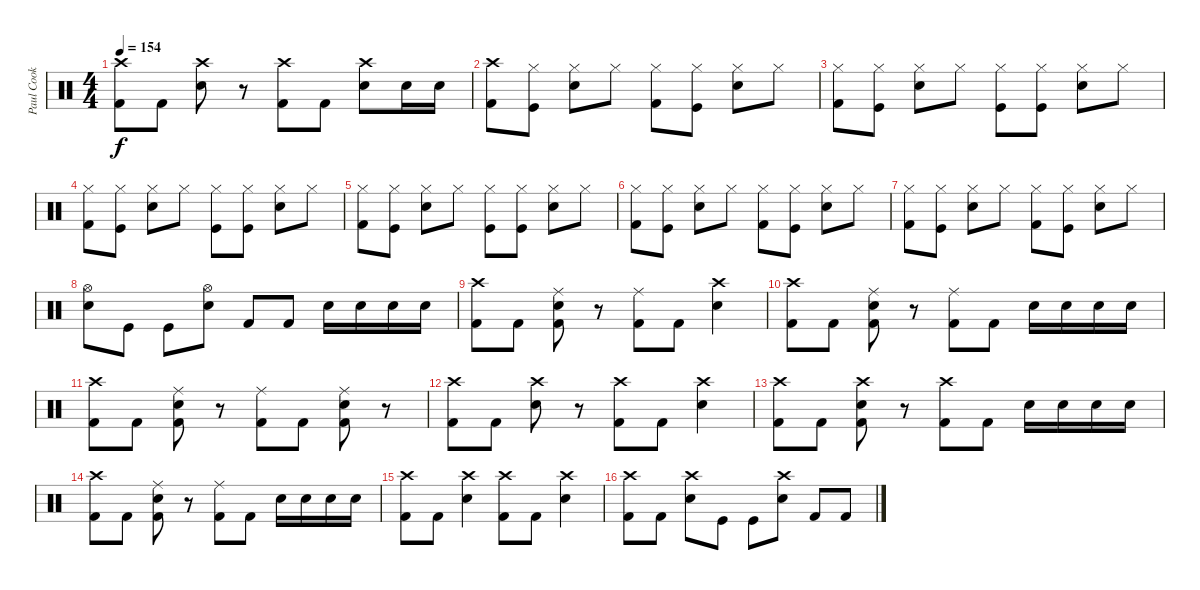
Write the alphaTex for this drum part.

\track ("Paul Cook" "Paul Cook") {instrument percussion}
\staff {score}
\articulation defaults
\ts (4 4)
\tempo 154
\clef neutral
\ks c
("Crash high (hit)" "Kick (hit) 2").8{dy f} "Kick (hit) 2".8 ("Crash high (hit)" "Electric Snare (hit)").8 r.8 ("Crash high (hit)" "Kick (hit) 2").8 "Kick (hit) 2".8 ("Crash high (hit)" "Electric Snare (hit)").8 "Snare (hit) 2".16 "Snare (hit) 2".16 |
("Crash high (hit)" "Kick (hit) 2").8 ("Kick (hit)" "Hi-Hat (closed)").8 ("Hi-Hat (closed)" "Snare (hit) 2").8 "Hi-Hat (closed)".8 ("Hi-Hat (closed)" "Kick (hit) 2").8 ("Kick (hit)" "Hi-Hat (closed)").8 ("Hi-Hat (closed)" "Snare (hit) 2").8 "Hi-Hat (closed)".8 |
("Hi-Hat (closed)" "Kick (hit) 2").8 ("Kick (hit)" "Hi-Hat (closed)").8 ("Hi-Hat (closed)" "Snare (hit) 2").8 "Hi-Hat (closed)".8 ("Kick (hit)" "Hi-Hat (closed)").8 ("Kick (hit)" "Hi-Hat (closed)").8 ("Snare (hit) 2" "Hi-Hat (closed)").8 "Hi-Hat (closed)".8 |
("Hi-Hat (closed)" "Kick (hit) 2").8 ("Kick (hit)" "Hi-Hat (closed)").8 ("Hi-Hat (closed)" "Snare (hit) 2").8 "Hi-Hat (closed)".8 ("Kick (hit)" "Hi-Hat (closed)").8 ("Kick (hit)" "Hi-Hat (closed)").8 ("Snare (hit) 2" "Hi-Hat (closed)").8 "Hi-Hat (closed)".8 |
("Hi-Hat (closed)" "Kick (hit) 2").8 ("Kick (hit)" "Hi-Hat (closed)").8 ("Hi-Hat (closed)" "Snare (hit) 2").8 "Hi-Hat (closed)".8 ("Kick (hit)" "Hi-Hat (closed)").8 ("Kick (hit)" "Hi-Hat (closed)").8 ("Snare (hit) 2" "Hi-Hat (closed)").8 "Hi-Hat (closed)".8 |
("Hi-Hat (closed)" "Kick (hit) 2").8 ("Kick (hit)" "Hi-Hat (closed)").8 ("Hi-Hat (closed)" "Snare (hit) 2").8 "Hi-Hat (closed)".8 ("Hi-Hat (closed)" "Kick (hit) 2").8 ("Kick (hit)" "Hi-Hat (closed)").8 ("Hi-Hat (closed)" "Snare (hit) 2").8 "Hi-Hat (closed)".8 |
("Hi-Hat (closed)" "Kick (hit) 2").8 ("Kick (hit)" "Hi-Hat (closed)").8 ("Hi-Hat (closed)" "Snare (hit) 2").8 "Hi-Hat (closed)".8 ("Hi-Hat (closed)" "Kick (hit) 2").8 ("Kick (hit)" "Hi-Hat (closed)").8 ("Hi-Hat (closed)" "Snare (hit) 2").8 "Hi-Hat (closed)".8 |
("Hi-Hat (open)" "Snare (hit) 2").8 "Kick (hit)".8 "Kick (hit)".8 ("Hi-Hat (open)" "Snare (hit) 2").8 "Kick (hit) 2".8 "Kick (hit) 2".8 "Snare (hit) 2".16 "Snare (hit) 2".16 "Snare (hit) 2".16 "Snare (hit) 2".16 |
("Crash high (hit)" "Kick (hit) 2").8 "Kick (hit) 2".8 ("Ride (middle)" "Electric Snare (hit)" "Kick (hit) 2").8 r.8 ("Ride (middle)" "Kick (hit) 2").8 "Kick (hit) 2".8 ("Snare (hit) 2" "Crash high (hit)").4 |
("Crash high (hit)" "Kick (hit) 2").8 "Kick (hit) 2".8 ("Ride (middle)" "Electric Snare (hit)" "Kick (hit) 2").8 r.8 ("Ride (middle)" "Kick (hit) 2").8 "Kick (hit) 2".8 "Snare (hit) 2".16 "Snare (hit) 2".16 "Snare (hit) 2".16 "Snare (hit) 2".16 |
("Crash high (hit)" "Kick (hit) 2").8 "Kick (hit) 2".8 ("Ride (middle)" "Electric Snare (hit)" "Kick (hit) 2").8 r.8 ("Ride (middle)" "Kick (hit) 2").8 "Kick (hit) 2".8 ("Ride (middle)" "Electric Snare (hit)" "Kick (hit) 2").8 r.8 |
("Crash high (hit)" "Kick (hit) 2").8 "Kick (hit) 2".8 ("Crash high (hit)" "Snare (hit) 2").8 r.8 ("Crash high (hit)" "Kick (hit) 2").8 "Kick (hit) 2".8 ("Snare (hit) 2" "Crash high (hit)").4 |
("Crash high (hit)" "Kick (hit) 2").8 "Kick (hit) 2".8 ("Crash high (hit)" "Electric Snare (hit)" "Kick (hit) 2").8 r.8 ("Crash high (hit)" "Kick (hit) 2").8 "Kick (hit) 2".8 "Snare (hit) 2".16 "Snare (hit) 2".16 "Snare (hit) 2".16 "Snare (hit) 2".16 |
("Crash high (hit)" "Kick (hit) 2").8 "Kick (hit) 2".8 ("Ride (middle)" "Electric Snare (hit)" "Kick (hit) 2").8 r.8 ("Ride (middle)" "Kick (hit) 2").8 "Kick (hit) 2".8 "Snare (hit) 2".16 "Snare (hit) 2".16 "Snare (hit) 2".16 "Snare (hit) 2".16 |
("Crash high (hit)" "Kick (hit) 2").8 "Kick (hit) 2".8 ("Crash high (hit)" "Snare (hit) 2").4 ("Crash high (hit)" "Kick (hit) 2").8 "Kick (hit) 2".8 ("Crash high (hit)" "Snare (hit) 2").4 |
("Crash high (hit)" "Kick (hit) 2").8 "Kick (hit) 2".8 ("Crash high (hit)" "Snare (hit) 2").8 "Kick (hit)".8 "Kick (hit)".8 ("Crash high (hit)" "Snare (hit) 2").8 "Kick (hit) 2".8 "Kick (hit) 2".8
